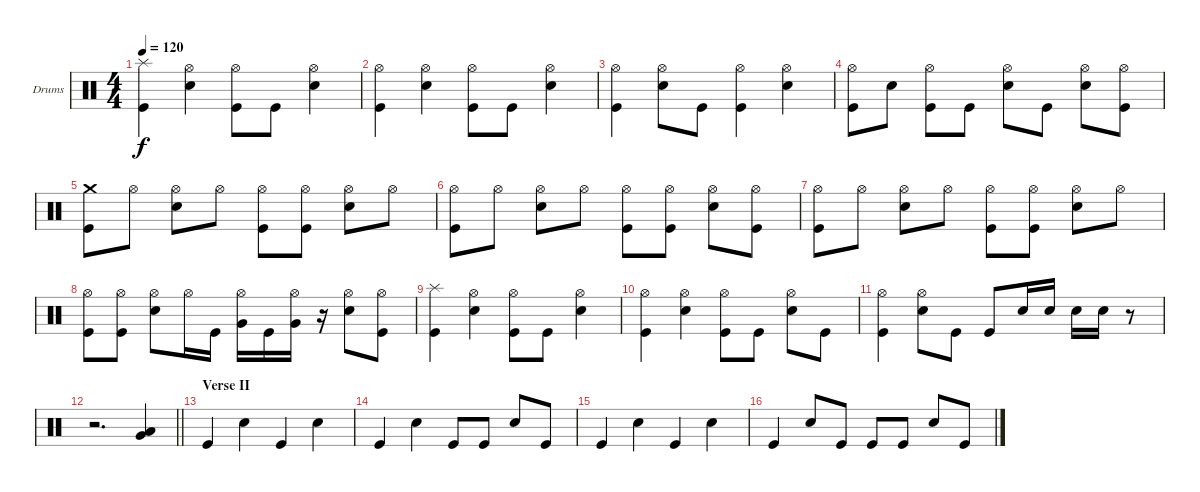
\bracketExtendMode groupsimilarinstruments
\firstSystemTrackNameOrientation horizontal
\otherSystemsTrackNameOrientation horizontal
\track ("Drumkit" "Drums") {instrument percussion}
\staff {score}
\articulation defaults
\ts (4 4)
\tempo 120
\clef neutral
\ks c
("Kick (hit)" "Splash (hit)").4{dy f} ("Snare (hit) 2" "Hi-Hat (open)").4 ("Kick (hit)" "Hi-Hat (open)").8 "Kick (hit)".8 ("Snare (hit) 2" "Hi-Hat (open)").4 |
("Kick (hit)" "Hi-Hat (open)").4 ("Snare (hit) 2" "Hi-Hat (open)").4 ("Kick (hit)" "Hi-Hat (open)").8 "Kick (hit)".8 ("Snare (hit) 2" "Hi-Hat (open)").4 |
("Kick (hit)" "Hi-Hat (open)").4 ("Snare (hit) 2" "Hi-Hat (open)").8 "Kick (hit)".8 ("Kick (hit)" "Hi-Hat (open)").4 ("Snare (hit) 2" "Hi-Hat (open)").4 |
("Kick (hit)" "Hi-Hat (open)").8 "Snare (hit) 2".8 ("Kick (hit)" "Hi-Hat (open)").8 "Kick (hit)".8 ("Snare (hit) 2" "Hi-Hat (open)").8 "Kick (hit)".8 ("Snare (hit) 2" "Hi-Hat (open)").8 ("Kick (hit)" "Hi-Hat (open)").8 |
("Kick (hit)" "Crash medium (hit)").8 "Hi-Hat (open)".8 ("Snare (hit) 2" "Hi-Hat (open)").8 "Hi-Hat (open)".8 ("Kick (hit)" "Hi-Hat (open)").8 ("Kick (hit)" "Hi-Hat (open)").8 ("Snare (hit) 2" "Hi-Hat (open)").8 "Hi-Hat (open)".8 |
("Kick (hit)" "Hi-Hat (open)").8 "Hi-Hat (open)".8 ("Snare (hit) 2" "Hi-Hat (open)").8 "Hi-Hat (open)".8 ("Kick (hit)" "Hi-Hat (open)").8 ("Kick (hit)" "Hi-Hat (open)").8 ("Snare (hit) 2" "Hi-Hat (open)").8 ("Kick (hit)" "Hi-Hat (open)").8 |
("Kick (hit)" "Hi-Hat (open)").8 "Hi-Hat (open)".8 ("Snare (hit) 2" "Hi-Hat (open)").8 "Hi-Hat (open)".8 ("Kick (hit)" "Hi-Hat (open)").8 ("Kick (hit)" "Hi-Hat (open)").8 ("Snare (hit) 2" "Hi-Hat (open)").8 "Hi-Hat (open)".8 |
("Kick (hit)" "Hi-Hat (open)").8 ("Kick (hit)" "Hi-Hat (open)").8 ("Snare (hit) 2" "Hi-Hat (open)").8 "Hi-Hat (open)".16 "Kick (hit)".16 ("Very Low Tom (hit)" "Hi-Hat (open)").16 "Kick (hit)".16 ("Very Low Tom (hit)" "Hi-Hat (open)").16 r.16 ("Snare (hit) 2" "Hi-Hat (open)").8 ("Kick (hit)" "Hi-Hat (open)").8 |
("Kick (hit)" "Splash (hit)").4 ("Snare (hit) 2" "Hi-Hat (open)").4 ("Kick (hit)" "Hi-Hat (open)").8 "Kick (hit)".8 ("Snare (hit) 2" "Hi-Hat (open)").4 |
("Kick (hit)" "Hi-Hat (open)").4 ("Snare (hit) 2" "Hi-Hat (open)").4 ("Kick (hit)" "Hi-Hat (open)").8 "Kick (hit)".8 ("Snare (hit) 2" "Hi-Hat (open)").8 "Kick (hit)".8 |
("Kick (hit)" "Hi-Hat (open)").4 ("Snare (hit) 2" "Hi-Hat (open)").8 "Kick (hit)".8 "Kick (hit)".8 "Snare (hit) 2".16 "Snare (hit) 2".16 "Snare (hit) 2".16 "Snare (hit) 2".16 r.8 |
\barLineRight lightlight
r.2{d} ("Very Low Tom (hit)" "Low Tom (hit)").4 |
\section ("" "Verse II")
"Kick (hit)".4 "Snare (hit) 2".4 "Kick (hit)".4 "Snare (hit) 2".4 |
"Kick (hit)".4 "Snare (hit) 2".4 "Kick (hit)".8 "Kick (hit)".8 "Snare (hit) 2".8 "Kick (hit)".8 |
"Kick (hit)".4 "Snare (hit) 2".4 "Kick (hit)".4 "Snare (hit) 2".4 |
"Kick (hit)".4 "Snare (hit) 2".8 "Kick (hit)".8 "Kick (hit)".8 "Kick (hit)".8 "Snare (hit) 2".8 "Kick (hit)".8
